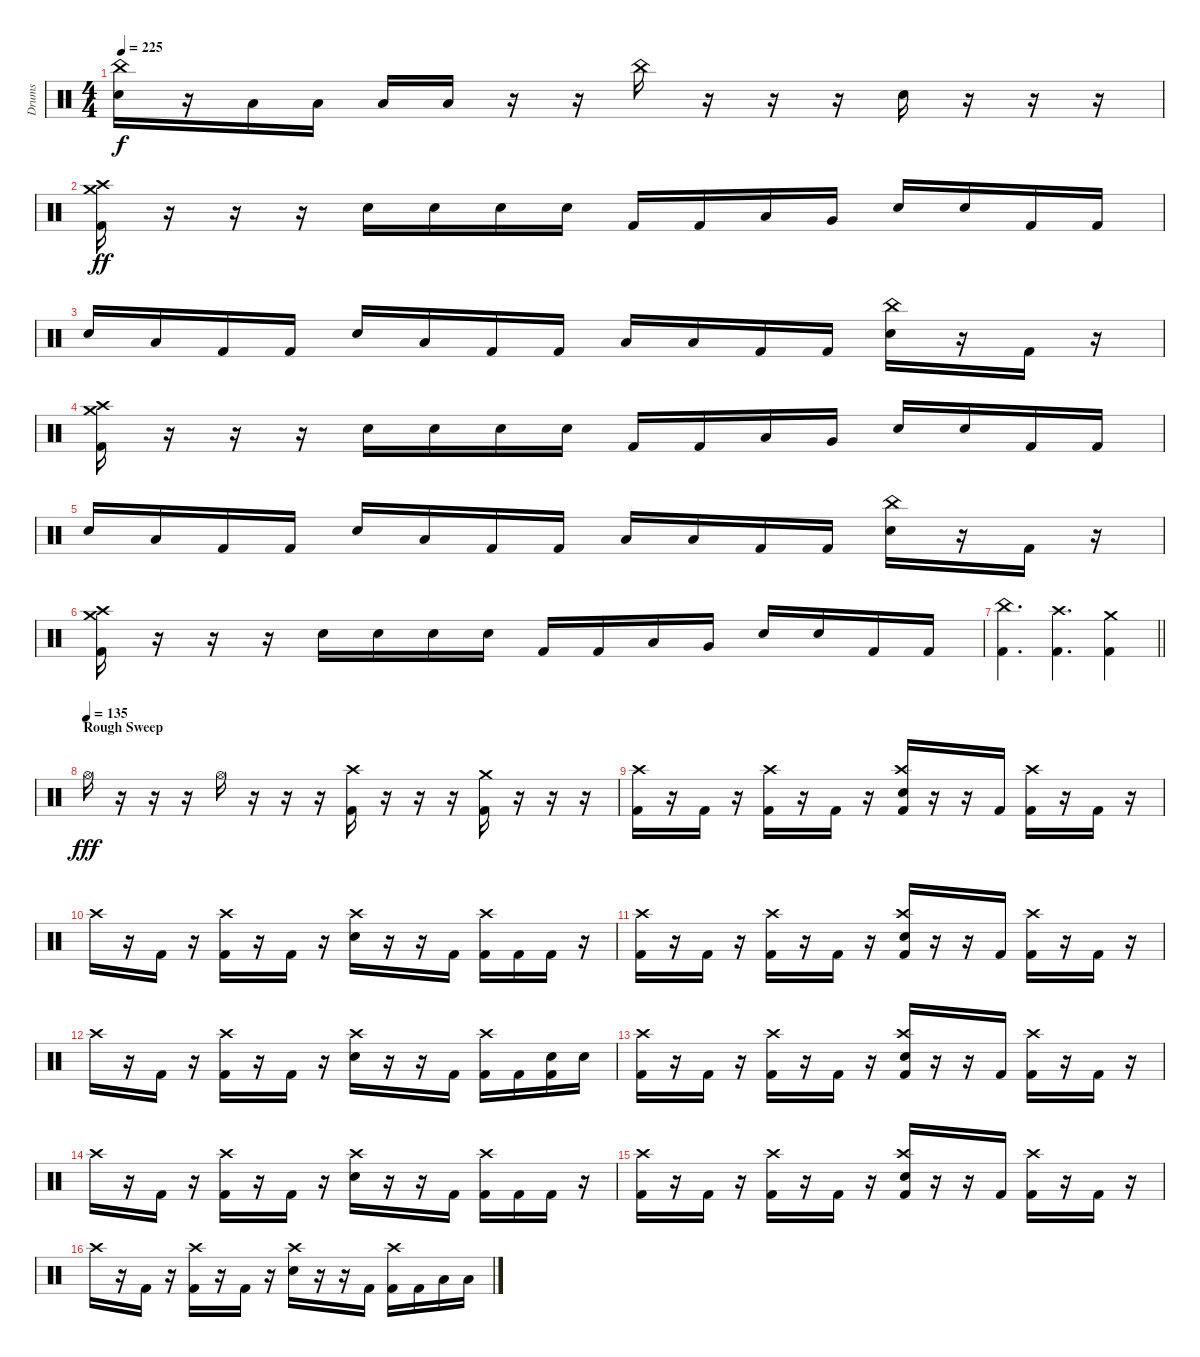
\track ("Drums" "Drums") {instrument percussion}
\staff {score}
\articulation defaults
\ts (4 4)
\tempo 225
\clef neutral
\ks c
("China (hit)" "Electric Snare (hit)").16{dy f} r.16 "Low Tom (hit)".16 "Low Tom (hit)".16 "Low Tom (hit)".16 "Low Tom (hit)".16 r.16 r.16 "China (hit)".16 r.16 r.16 r.16 "Electric Snare (hit)".16 r.16 r.16 r.16 |
("Crash medium (hit)" "Crash high (hit)" "Kick (hit) 2").16{dy ff} r.16 r.16 r.16 "Electric Snare (hit)".16 "Electric Snare (hit)".16 "Electric Snare (hit)".16 "Electric Snare (hit)".16 "Kick (hit) 2".16 "Kick (hit) 2".16 "Low Tom (hit)".16 "Very Low Tom (hit)".16 "Electric Snare (hit)".16 "Electric Snare (hit)".16 "Kick (hit) 2".16 "Kick (hit) 2".16 |
"Electric Snare (hit)".16 "Low Tom (hit)".16 "Kick (hit) 2".16 "Kick (hit) 2".16 "Electric Snare (hit)".16 "Low Tom (hit)".16 "Kick (hit) 2".16 "Kick (hit) 2".16 "Low Tom (hit)".16 "Low Tom (hit)".16 "Kick (hit) 2".16 "Kick (hit) 2".16 ("China (hit)" "Electric Snare (hit)").16 r.16 "Kick (hit) 2".16 r.16 |
("Crash medium (hit)" "Crash high (hit)" "Kick (hit) 2").16 r.16 r.16 r.16 "Electric Snare (hit)".16 "Electric Snare (hit)".16 "Electric Snare (hit)".16 "Electric Snare (hit)".16 "Kick (hit) 2".16 "Kick (hit) 2".16 "Low Tom (hit)".16 "Very Low Tom (hit)".16 "Electric Snare (hit)".16 "Electric Snare (hit)".16 "Kick (hit) 2".16 "Kick (hit) 2".16 |
"Electric Snare (hit)".16 "Low Tom (hit)".16 "Kick (hit) 2".16 "Kick (hit) 2".16 "Electric Snare (hit)".16 "Low Tom (hit)".16 "Kick (hit) 2".16 "Kick (hit) 2".16 "Low Tom (hit)".16 "Low Tom (hit)".16 "Kick (hit) 2".16 "Kick (hit) 2".16 ("China (hit)" "Electric Snare (hit)").16 r.16 "Kick (hit) 2".16 r.16 |
("Crash medium (hit)" "Crash high (hit)" "Kick (hit) 2").16 r.16 r.16 r.16 "Electric Snare (hit)".16 "Electric Snare (hit)".16 "Electric Snare (hit)".16 "Electric Snare (hit)".16 "Kick (hit) 2".16 "Kick (hit) 2".16 "Low Tom (hit)".16 "Very Low Tom (hit)".16 "Electric Snare (hit)".16 "Electric Snare (hit)".16 "Kick (hit) 2".16 "Kick (hit) 2".16 |
\barLineRight lightlight
("China (hit)" "Kick (hit) 2").4{d} ("Crash high (hit)" "Kick (hit) 2").4{d} ("Crash medium (hit)" "Kick (hit) 2").4 |
\section ("" "Rough Sweep")
\tempo (135)
"Hi-Hat (open)".16{dy fff} r.16 r.16 r.16 "Hi-Hat (open)".16 r.16 r.16 r.16 ("Crash high (hit)" "Kick (hit) 2").16 r.16 r.16 r.16 ("Crash medium (hit)" "Kick (hit) 2").16 r.16 r.16 r.16 |
("Crash high (hit)" "Kick (hit) 2").16 r.16 "Kick (hit) 2".16 r.16 ("Crash high (hit)" "Kick (hit) 2").16 r.16 "Kick (hit) 2".16 r.16 ("Crash high (hit)" "Electric Snare (hit)" "Kick (hit) 2").16 r.16 r.16 "Kick (hit) 2".16 ("Crash high (hit)" "Kick (hit) 2").16 r.16 "Kick (hit) 2".16 r.16 |
"Crash high (hit)".16 r.16 "Kick (hit) 2".16 r.16 ("Crash high (hit)" "Kick (hit) 2").16 r.16 "Kick (hit) 2".16 r.16 ("Crash high (hit)" "Electric Snare (hit)").16 r.16 r.16 "Kick (hit) 2".16 ("Crash high (hit)" "Kick (hit) 2").16 "Kick (hit) 2".16 "Kick (hit) 2".16 r.16 |
("Crash high (hit)" "Kick (hit) 2").16 r.16 "Kick (hit) 2".16 r.16 ("Crash high (hit)" "Kick (hit) 2").16 r.16 "Kick (hit) 2".16 r.16 ("Crash high (hit)" "Electric Snare (hit)" "Kick (hit) 2").16 r.16 r.16 "Kick (hit) 2".16 ("Crash high (hit)" "Kick (hit) 2").16 r.16 "Kick (hit) 2".16 r.16 |
"Crash high (hit)".16 r.16 "Kick (hit) 2".16 r.16 ("Crash high (hit)" "Kick (hit) 2").16 r.16 "Kick (hit) 2".16 r.16 ("Crash high (hit)" "Electric Snare (hit)").16 r.16 r.16 "Kick (hit) 2".16 ("Crash high (hit)" "Kick (hit) 2").16 "Kick (hit) 2".16 ("Electric Snare (hit)" "Kick (hit) 2").16 "Electric Snare (hit)".16 |
("Crash high (hit)" "Kick (hit) 2").16 r.16 "Kick (hit) 2".16 r.16 ("Crash high (hit)" "Kick (hit) 2").16 r.16 "Kick (hit) 2".16 r.16 ("Crash high (hit)" "Electric Snare (hit)" "Kick (hit) 2").16 r.16 r.16 "Kick (hit) 2".16 ("Crash high (hit)" "Kick (hit) 2").16 r.16 "Kick (hit) 2".16 r.16 |
"Crash high (hit)".16 r.16 "Kick (hit) 2".16 r.16 ("Crash high (hit)" "Kick (hit) 2").16 r.16 "Kick (hit) 2".16 r.16 ("Crash high (hit)" "Electric Snare (hit)").16 r.16 r.16 "Kick (hit) 2".16 ("Crash high (hit)" "Kick (hit) 2").16 "Kick (hit) 2".16 "Kick (hit) 2".16 r.16 |
("Crash high (hit)" "Kick (hit) 2").16 r.16 "Kick (hit) 2".16 r.16 ("Crash high (hit)" "Kick (hit) 2").16 r.16 "Kick (hit) 2".16 r.16 ("Crash high (hit)" "Electric Snare (hit)" "Kick (hit) 2").16 r.16 r.16 "Kick (hit) 2".16 ("Crash high (hit)" "Kick (hit) 2").16 r.16 "Kick (hit) 2".16 r.16 |
"Crash high (hit)".16 r.16 "Kick (hit) 2".16 r.16 ("Crash high (hit)" "Kick (hit) 2").16 r.16 "Kick (hit) 2".16 r.16 ("Crash high (hit)" "Electric Snare (hit)").16 r.16 r.16 "Kick (hit) 2".16 ("Crash high (hit)" "Kick (hit) 2").16 "Kick (hit) 2".16 "Low Tom (hit)".16 "Low Tom (hit)".16
